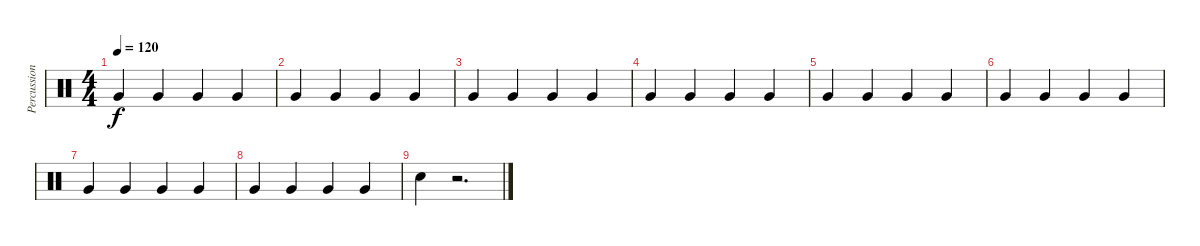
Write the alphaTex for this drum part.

\track ("Percussion" "Percussion") {instrument percussion}
\staff {score}
\articulation defaults
\ts (4 4)
\tempo 120
\clef neutral
\ks c "Very Low Tom (hit)".4{dy f} "Very Low Tom (hit)".4 "Very Low Tom (hit)".4 "Very Low Tom (hit)".4
|
"Very Low Tom (hit)".4 "Very Low Tom (hit)".4 "Very Low Tom (hit)".4 "Very Low Tom (hit)".4 |
"Very Low Tom (hit)".4 "Very Low Tom (hit)".4 "Very Low Tom (hit)".4 "Very Low Tom (hit)".4 |
"Very Low Tom (hit)".4 "Very Low Tom (hit)".4 "Very Low Tom (hit)".4 "Very Low Tom (hit)".4 |
"Very Low Tom (hit)".4 "Very Low Tom (hit)".4 "Very Low Tom (hit)".4 "Very Low Tom (hit)".4 |
"Very Low Tom (hit)".4 "Very Low Tom (hit)".4 "Very Low Tom (hit)".4 "Very Low Tom (hit)".4 |
"Very Low Tom (hit)".4 "Very Low Tom (hit)".4 "Very Low Tom (hit)".4 "Very Low Tom (hit)".4 |
"Very Low Tom (hit)".4 "Very Low Tom (hit)".4 "Very Low Tom (hit)".4 "Very Low Tom (hit)".4 |
"Hand Clap (hit)".4 r.2{d}
